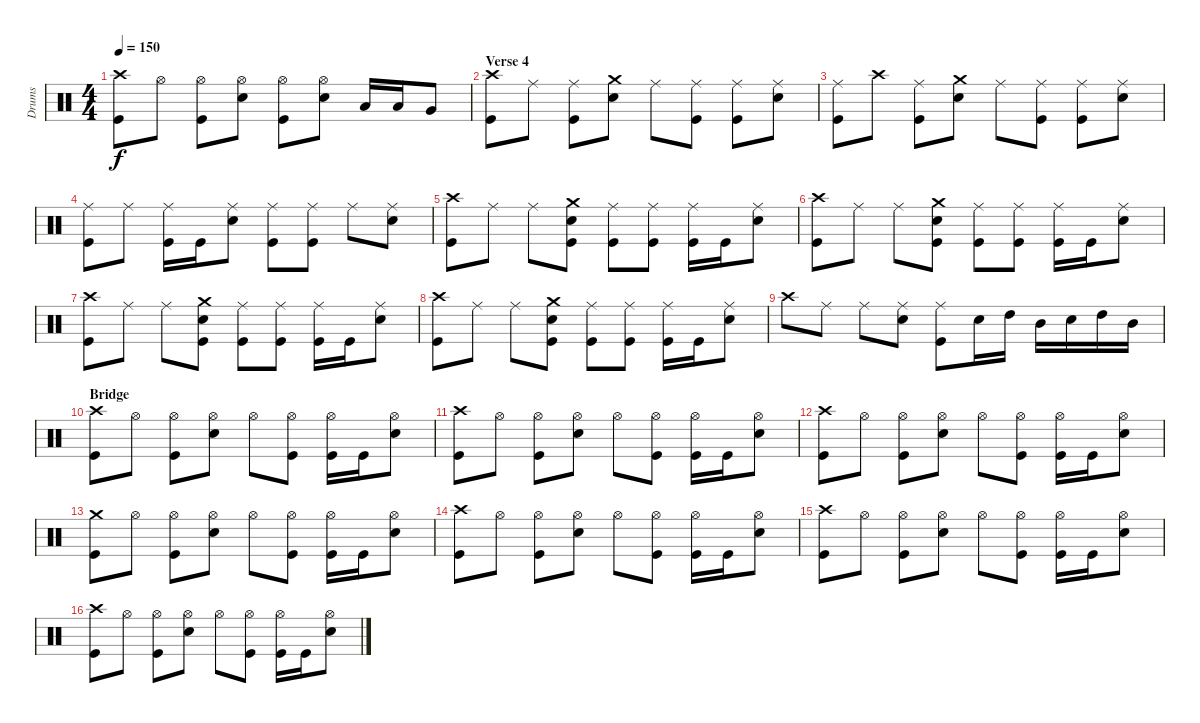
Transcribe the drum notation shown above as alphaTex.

\track ("Drums" "Drums") {instrument percussion}
\staff {score}
\articulation defaults
\ts (4 4)
\tempo 150
\clef neutral
\ks c
("Crash high (hit)" "Kick (hit)").8{dy f} "Hi-Hat (open)".8 ("Hi-Hat (open)" "Kick (hit)").8 ("Hi-Hat (open)" "Electric Snare (hit)").8 ("Hi-Hat (open)" "Kick (hit)").8 ("Hi-Hat (open)" "Electric Snare (hit)").8 "Low Tom (hit)".16 "Low Tom (hit)".16 "Very Low Tom (hit)".8 |
\section ("" "Verse 4")
("Crash high (hit)" "Kick (hit)").8 "Ride (middle)".8 ("Ride (middle)" "Kick (hit)").8 ("Crash medium (hit)" "Electric Snare (hit)").8 "Ride (middle)".8 ("Ride (middle)" "Kick (hit)").8 ("Ride (middle)" "Kick (hit)").8 ("Ride (middle)" "Electric Snare (hit)").8 |
("Ride (middle)" "Kick (hit)").8 "Crash high (hit)".8 ("Ride (middle)" "Kick (hit)").8 ("Crash medium (hit)" "Electric Snare (hit)").8 "Ride (middle)".8 ("Ride (middle)" "Kick (hit)").8 ("Ride (middle)" "Kick (hit)").8 ("Ride (middle)" "Electric Snare (hit)").8 |
("Ride (middle)" "Kick (hit)").8 "Ride (middle)".8 ("Ride (middle)" "Kick (hit)").16 "Kick (hit)".16 ("Ride (middle)" "Electric Snare (hit)").8 ("Ride (middle)" "Kick (hit)").8 ("Ride (middle)" "Kick (hit)").8 "Ride (middle)".8 ("Ride (middle)" "Electric Snare (hit)").8 |
("Crash high (hit)" "Kick (hit)").8 "Ride (middle)".8 "Ride (middle)".8 ("Crash medium (hit)" "Electric Snare (hit)" "Kick (hit)").8 ("Ride (middle)" "Kick (hit)").8 ("Ride (middle)" "Kick (hit)").8 ("Ride (middle)" "Kick (hit)").16 "Kick (hit)".16 ("Ride (middle)" "Electric Snare (hit)").8 |
("Crash high (hit)" "Kick (hit)").8 "Ride (middle)".8 "Ride (middle)".8 ("Crash medium (hit)" "Electric Snare (hit)" "Kick (hit)").8 ("Ride (middle)" "Kick (hit)").8 ("Ride (middle)" "Kick (hit)").8 ("Ride (middle)" "Kick (hit)").16 "Kick (hit)".16 ("Ride (middle)" "Electric Snare (hit)").8 |
("Crash high (hit)" "Kick (hit)").8 "Ride (middle)".8 "Ride (middle)".8 ("Crash medium (hit)" "Electric Snare (hit)" "Kick (hit)").8 ("Ride (middle)" "Kick (hit)").8 ("Ride (middle)" "Kick (hit)").8 ("Ride (middle)" "Kick (hit)").16 "Kick (hit)".16 ("Ride (middle)" "Electric Snare (hit)").8 |
("Crash high (hit)" "Kick (hit)").8 "Ride (middle)".8 "Ride (middle)".8 ("Crash medium (hit)" "Electric Snare (hit)" "Kick (hit)").8 ("Ride (middle)" "Kick (hit)").8 ("Ride (middle)" "Kick (hit)").8 ("Ride (middle)" "Kick (hit)").16 "Kick (hit)".16 ("Ride (middle)" "Electric Snare (hit)").8 |
"Crash high (hit)".8 "Ride (middle)".8 "Ride (middle)".8 ("Ride (middle)" "Electric Snare (hit)").8 ("Ride (middle)" "Kick (hit)").8 "Electric Snare (hit)".16 "High Tom (hit)".16 "Mid Tom (hit)".16 "Electric Snare (hit)".16 "High Tom (hit)".16 "Mid Tom (hit)".16 |
\section ("" "Bridge")
("Crash high (hit)" "Kick (hit)").8 "Hi-Hat (open)".8 ("Hi-Hat (open)" "Kick (hit)").8 ("Hi-Hat (open)" "Electric Snare (hit)").8 "Hi-Hat (open)".8 ("Hi-Hat (open)" "Kick (hit)").8 ("Hi-Hat (open)" "Kick (hit)").16 "Kick (hit)".16 ("Hi-Hat (open)" "Electric Snare (hit)").8 |
("Crash high (hit)" "Kick (hit)").8 "Hi-Hat (open)".8 ("Hi-Hat (open)" "Kick (hit)").8 ("Hi-Hat (open)" "Electric Snare (hit)").8 "Hi-Hat (open)".8 ("Hi-Hat (open)" "Kick (hit)").8 ("Hi-Hat (open)" "Kick (hit)").16 "Kick (hit)".16 ("Hi-Hat (open)" "Electric Snare (hit)").8 |
("Crash high (hit)" "Kick (hit)").8 "Hi-Hat (open)".8 ("Hi-Hat (open)" "Kick (hit)").8 ("Hi-Hat (open)" "Electric Snare (hit)").8 "Hi-Hat (open)".8 ("Hi-Hat (open)" "Kick (hit)").8 ("Hi-Hat (open)" "Kick (hit)").16 "Kick (hit)".16 ("Hi-Hat (open)" "Electric Snare (hit)").8 |
("Crash medium (hit)" "Kick (hit)").8 "Hi-Hat (open)".8 ("Hi-Hat (open)" "Kick (hit)").8 ("Hi-Hat (open)" "Electric Snare (hit)").8 "Hi-Hat (open)".8 ("Hi-Hat (open)" "Kick (hit)").8 ("Hi-Hat (open)" "Kick (hit)").16 "Kick (hit)".16 ("Hi-Hat (open)" "Electric Snare (hit)").8 |
("Crash high (hit)" "Kick (hit)").8 "Hi-Hat (open)".8 ("Hi-Hat (open)" "Kick (hit)").8 ("Hi-Hat (open)" "Electric Snare (hit)").8 "Hi-Hat (open)".8 ("Hi-Hat (open)" "Kick (hit)").8 ("Hi-Hat (open)" "Kick (hit)").16 "Kick (hit)".16 ("Hi-Hat (open)" "Electric Snare (hit)").8 |
("Crash high (hit)" "Kick (hit)").8 "Hi-Hat (open)".8 ("Hi-Hat (open)" "Kick (hit)").8 ("Hi-Hat (open)" "Electric Snare (hit)").8 "Hi-Hat (open)".8 ("Hi-Hat (open)" "Kick (hit)").8 ("Hi-Hat (open)" "Kick (hit)").16 "Kick (hit)".16 ("Hi-Hat (open)" "Electric Snare (hit)").8 |
("Crash high (hit)" "Kick (hit)").8 "Hi-Hat (open)".8 ("Hi-Hat (open)" "Kick (hit)").8 ("Hi-Hat (open)" "Electric Snare (hit)").8 "Hi-Hat (open)".8 ("Hi-Hat (open)" "Kick (hit)").8 ("Hi-Hat (open)" "Kick (hit)").16 "Kick (hit)".16 ("Hi-Hat (open)" "Electric Snare (hit)").8
